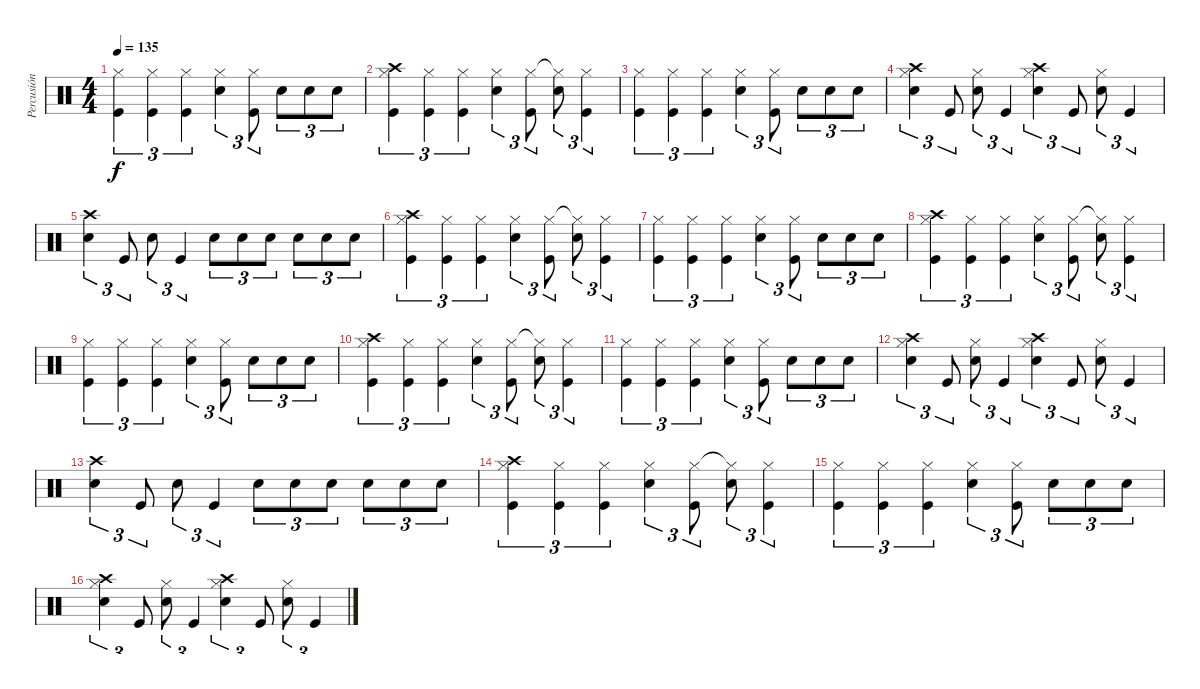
\track ("Percusión" "Percusión") {instrument percussion}
\staff {score}
\articulation defaults
\ts (4 4)
\tempo 135
\clef neutral
\ks c
("Hi-Hat (closed)" "Kick (hit)").4{tu (3 2) dy f} ("Hi-Hat (closed)" "Kick (hit)").4{tu (3 2)} ("Hi-Hat (closed)" "Kick (hit)").4{tu (3 2)} ("Hi-Hat (closed)" "Electric Snare (hit)").4{tu (3 2)} ("Hi-Hat (closed)" "Kick (hit)").8{tu (3 2)} "Electric Snare (hit)".8{tu (3 2)} "Electric Snare (hit)".8{tu (3 2)} "Electric Snare (hit)".8{tu (3 2)} |
("Hi-Hat (closed)" "Crash high (hit)" "Kick (hit)").4{tu (3 2)} ("Hi-Hat (closed)" "Kick (hit)").4{tu (3 2)} ("Hi-Hat (closed)" "Kick (hit)").4{tu (3 2)} ("Hi-Hat (closed)" "Electric Snare (hit)").4{tu (3 2)} ("Hi-Hat (closed)" "Kick (hit)").8{tu (3 2)} ("Hi-Hat (closed)"{t} "Electric Snare (hit)").8{tu (3 2)} ("Hi-Hat (closed)" "Kick (hit)").4{tu (3 2)} |
("Hi-Hat (closed)" "Kick (hit)").4{tu (3 2)} ("Hi-Hat (closed)" "Kick (hit)").4{tu (3 2)} ("Hi-Hat (closed)" "Kick (hit)").4{tu (3 2)} ("Hi-Hat (closed)" "Electric Snare (hit)").4{tu (3 2)} ("Hi-Hat (closed)" "Kick (hit)").8{tu (3 2)} "Electric Snare (hit)".8{tu (3 2)} "Electric Snare (hit)".8{tu (3 2)} "Electric Snare (hit)".8{tu (3 2)} |
("Hi-Hat (closed)" "Crash high (hit)" "Electric Snare (hit)").4{tu (3 2)} "Kick (hit)".8{tu (3 2)} ("Hi-Hat (closed)" "Electric Snare (hit)").8{tu (3 2)} "Kick (hit)".4{tu (3 2)} ("Hi-Hat (closed)" "Crash high (hit)" "Electric Snare (hit)").4{tu (3 2)} "Kick (hit)".8{tu (3 2)} ("Hi-Hat (closed)" "Electric Snare (hit)").8{tu (3 2)} "Kick (hit)".4{tu (3 2)} |
("Crash high (hit)" "Electric Snare (hit)").4{tu (3 2)} "Kick (hit)".8{tu (3 2)} "Electric Snare (hit)".8{tu (3 2)} "Kick (hit)".4{tu (3 2)} "Electric Snare (hit)".8{tu (3 2)} "Electric Snare (hit)".8{tu (3 2)} "Electric Snare (hit)".8{tu (3 2)} "Electric Snare (hit)".8{tu (3 2)} "Electric Snare (hit)".8{tu (3 2)} "Electric Snare (hit)".8{tu (3 2)} |
("Hi-Hat (closed)" "Crash high (hit)" "Kick (hit)").4{tu (3 2)} ("Hi-Hat (closed)" "Kick (hit)").4{tu (3 2)} ("Hi-Hat (closed)" "Kick (hit)").4{tu (3 2)} ("Hi-Hat (closed)" "Electric Snare (hit)").4{tu (3 2)} ("Hi-Hat (closed)" "Kick (hit)").8{tu (3 2)} ("Hi-Hat (closed)"{t} "Electric Snare (hit)").8{tu (3 2)} ("Hi-Hat (closed)" "Kick (hit)").4{tu (3 2)} |
("Hi-Hat (closed)" "Kick (hit)").4{tu (3 2)} ("Hi-Hat (closed)" "Kick (hit)").4{tu (3 2)} ("Hi-Hat (closed)" "Kick (hit)").4{tu (3 2)} ("Hi-Hat (closed)" "Electric Snare (hit)").4{tu (3 2)} ("Hi-Hat (closed)" "Kick (hit)").8{tu (3 2)} "Electric Snare (hit)".8{tu (3 2)} "Electric Snare (hit)".8{tu (3 2)} "Electric Snare (hit)".8{tu (3 2)} |
("Hi-Hat (closed)" "Crash high (hit)" "Kick (hit)").4{tu (3 2)} ("Hi-Hat (closed)" "Kick (hit)").4{tu (3 2)} ("Hi-Hat (closed)" "Kick (hit)").4{tu (3 2)} ("Hi-Hat (closed)" "Electric Snare (hit)").4{tu (3 2)} ("Hi-Hat (closed)" "Kick (hit)").8{tu (3 2)} ("Hi-Hat (closed)"{t} "Electric Snare (hit)").8{tu (3 2)} ("Hi-Hat (closed)" "Kick (hit)").4{tu (3 2)} |
("Hi-Hat (closed)" "Kick (hit)").4{tu (3 2)} ("Hi-Hat (closed)" "Kick (hit)").4{tu (3 2)} ("Hi-Hat (closed)" "Kick (hit)").4{tu (3 2)} ("Hi-Hat (closed)" "Electric Snare (hit)").4{tu (3 2)} ("Hi-Hat (closed)" "Kick (hit)").8{tu (3 2)} "Electric Snare (hit)".8{tu (3 2)} "Electric Snare (hit)".8{tu (3 2)} "Electric Snare (hit)".8{tu (3 2)} |
("Hi-Hat (closed)" "Crash high (hit)" "Kick (hit)").4{tu (3 2)} ("Hi-Hat (closed)" "Kick (hit)").4{tu (3 2)} ("Hi-Hat (closed)" "Kick (hit)").4{tu (3 2)} ("Hi-Hat (closed)" "Electric Snare (hit)").4{tu (3 2)} ("Hi-Hat (closed)" "Kick (hit)").8{tu (3 2)} ("Hi-Hat (closed)"{t} "Electric Snare (hit)").8{tu (3 2)} ("Hi-Hat (closed)" "Kick (hit)").4{tu (3 2)} |
("Hi-Hat (closed)" "Kick (hit)").4{tu (3 2)} ("Hi-Hat (closed)" "Kick (hit)").4{tu (3 2)} ("Hi-Hat (closed)" "Kick (hit)").4{tu (3 2)} ("Hi-Hat (closed)" "Electric Snare (hit)").4{tu (3 2)} ("Hi-Hat (closed)" "Kick (hit)").8{tu (3 2)} "Electric Snare (hit)".8{tu (3 2)} "Electric Snare (hit)".8{tu (3 2)} "Electric Snare (hit)".8{tu (3 2)} |
("Hi-Hat (closed)" "Crash high (hit)" "Electric Snare (hit)").4{tu (3 2)} "Kick (hit)".8{tu (3 2)} ("Hi-Hat (closed)" "Electric Snare (hit)").8{tu (3 2)} "Kick (hit)".4{tu (3 2)} ("Hi-Hat (closed)" "Crash high (hit)" "Electric Snare (hit)").4{tu (3 2)} "Kick (hit)".8{tu (3 2)} ("Hi-Hat (closed)" "Electric Snare (hit)").8{tu (3 2)} "Kick (hit)".4{tu (3 2)} |
("Crash high (hit)" "Electric Snare (hit)").4{tu (3 2)} "Kick (hit)".8{tu (3 2)} "Electric Snare (hit)".8{tu (3 2)} "Kick (hit)".4{tu (3 2)} "Electric Snare (hit)".8{tu (3 2)} "Electric Snare (hit)".8{tu (3 2)} "Electric Snare (hit)".8{tu (3 2)} "Electric Snare (hit)".8{tu (3 2)} "Electric Snare (hit)".8{tu (3 2)} "Electric Snare (hit)".8{tu (3 2)} |
("Hi-Hat (closed)" "Crash high (hit)" "Kick (hit)").4{tu (3 2)} ("Hi-Hat (closed)" "Kick (hit)").4{tu (3 2)} ("Hi-Hat (closed)" "Kick (hit)").4{tu (3 2)} ("Hi-Hat (closed)" "Electric Snare (hit)").4{tu (3 2)} ("Hi-Hat (closed)" "Kick (hit)").8{tu (3 2)} ("Hi-Hat (closed)"{t} "Electric Snare (hit)").8{tu (3 2)} ("Hi-Hat (closed)" "Kick (hit)").4{tu (3 2)} |
("Hi-Hat (closed)" "Kick (hit)").4{tu (3 2)} ("Hi-Hat (closed)" "Kick (hit)").4{tu (3 2)} ("Hi-Hat (closed)" "Kick (hit)").4{tu (3 2)} ("Hi-Hat (closed)" "Electric Snare (hit)").4{tu (3 2)} ("Hi-Hat (closed)" "Kick (hit)").8{tu (3 2)} "Electric Snare (hit)".8{tu (3 2)} "Electric Snare (hit)".8{tu (3 2)} "Electric Snare (hit)".8{tu (3 2)} |
("Hi-Hat (closed)" "Crash high (hit)" "Electric Snare (hit)").4{tu (3 2)} "Kick (hit)".8{tu (3 2)} ("Hi-Hat (closed)" "Electric Snare (hit)").8{tu (3 2)} "Kick (hit)".4{tu (3 2)} ("Hi-Hat (closed)" "Crash high (hit)" "Electric Snare (hit)").4{tu (3 2)} "Kick (hit)".8{tu (3 2)} ("Hi-Hat (closed)" "Electric Snare (hit)").8{tu (3 2)} "Kick (hit)".4{tu (3 2)}
